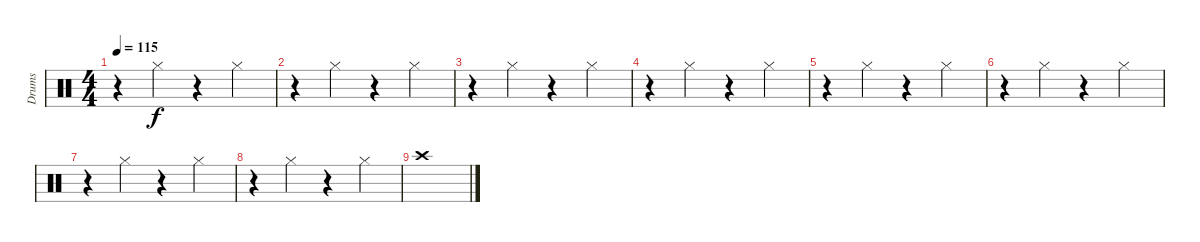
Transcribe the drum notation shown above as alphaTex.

\track ("Drums" "Drums") {instrument percussion}
\staff {score}
\articulation defaults
\ts (4 4)
\tempo 115
\clef neutral
\ks c
r.4{dy f} "Hi-Hat (closed)".4 r.4 "Hi-Hat (closed)".4 |
r.4 "Hi-Hat (closed)".4 r.4 "Hi-Hat (closed)".4 |
r.4 "Hi-Hat (closed)".4 r.4 "Hi-Hat (closed)".4 |
r.4 "Hi-Hat (closed)".4 r.4 "Hi-Hat (closed)".4 |
r.4 "Hi-Hat (closed)".4 r.4 "Hi-Hat (closed)".4 |
r.4 "Hi-Hat (closed)".4 r.4 "Hi-Hat (closed)".4 |
r.4 "Hi-Hat (closed)".4 r.4 "Hi-Hat (closed)".4 |
r.4 "Hi-Hat (closed)".4 r.4 "Hi-Hat (closed)".4 |
"Crash high (hit)".1
